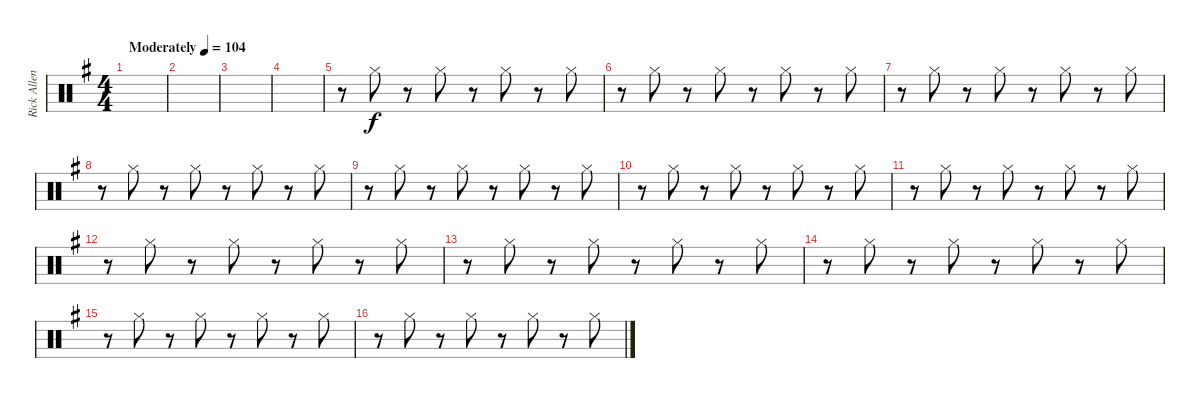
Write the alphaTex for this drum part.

\track ("Rick Allen" "Rick Allen") {instrument percussion}
\staff {score}
\articulation defaults
\ts (4 4)
\tempo (104 "Moderately")
\clef neutral
\ks eminor
|
|
|
|
r.8 "Hi-Hat (closed)".8 r.8 "Hi-Hat (closed)".8 r.8 "Hi-Hat (closed)".8 r.8 "Hi-Hat (closed)".8 |
r.8 "Hi-Hat (closed)".8 r.8 "Hi-Hat (closed)".8 r.8 "Hi-Hat (closed)".8 r.8 "Hi-Hat (closed)".8 |
r.8 "Hi-Hat (closed)".8 r.8 "Hi-Hat (closed)".8 r.8 "Hi-Hat (closed)".8 r.8 "Hi-Hat (closed)".8 |
r.8 "Hi-Hat (closed)".8 r.8 "Hi-Hat (closed)".8 r.8 "Hi-Hat (closed)".8 r.8 "Hi-Hat (closed)".8 |
r.8 "Hi-Hat (closed)".8 r.8 "Hi-Hat (closed)".8 r.8 "Hi-Hat (closed)".8 r.8 "Hi-Hat (closed)".8 |
r.8 "Hi-Hat (closed)".8 r.8 "Hi-Hat (closed)".8 r.8 "Hi-Hat (closed)".8 r.8 "Hi-Hat (closed)".8 |
r.8 "Hi-Hat (closed)".8 r.8 "Hi-Hat (closed)".8 r.8 "Hi-Hat (closed)".8 r.8 "Hi-Hat (closed)".8 |
r.8 "Hi-Hat (closed)".8 r.8 "Hi-Hat (closed)".8 r.8 "Hi-Hat (closed)".8 r.8 "Hi-Hat (closed)".8 |
r.8 "Hi-Hat (closed)".8 r.8 "Hi-Hat (closed)".8 r.8 "Hi-Hat (closed)".8 r.8 "Hi-Hat (closed)".8 |
r.8 "Hi-Hat (closed)".8 r.8 "Hi-Hat (closed)".8 r.8 "Hi-Hat (closed)".8 r.8 "Hi-Hat (closed)".8 |
r.8 "Hi-Hat (closed)".8 r.8 "Hi-Hat (closed)".8 r.8 "Hi-Hat (closed)".8 r.8 "Hi-Hat (closed)".8 |
r.8 "Hi-Hat (closed)".8 r.8 "Hi-Hat (closed)".8 r.8 "Hi-Hat (closed)".8 r.8 "Hi-Hat (closed)".8
